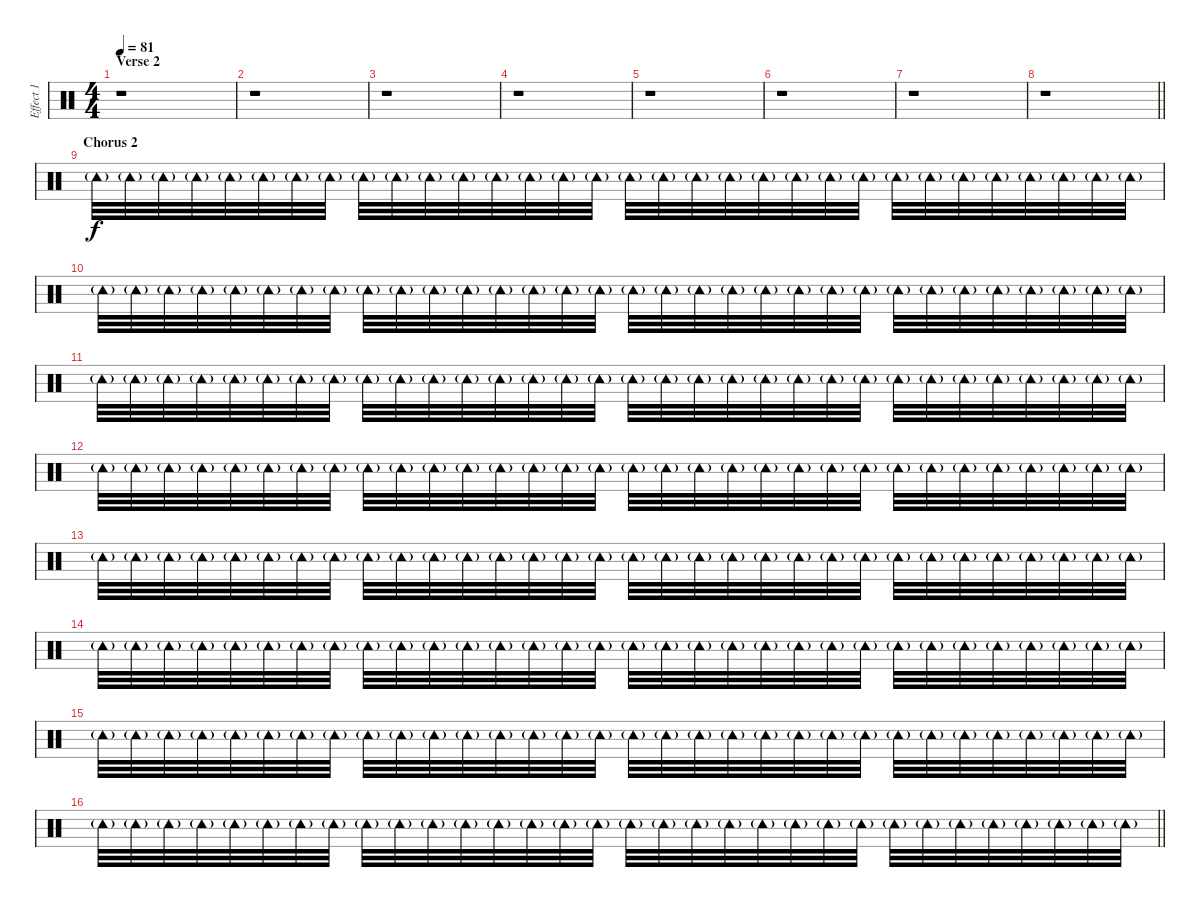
\track ("Effect 1" "Effect 1") {instrument percussion}
\staff {score}
\articulation defaults
\ts (4 4)
\section ("" "Verse 2")
\tempo 81
\clef neutral
\ks c
r.1{dy f} |
r.1 |
r.1 |
r.1 |
r.1 |
r.1 |
r.1 |
\barLineRight lightlight
r.1 |
\section ("" "Chorus 2")
"Tambourine (hit)"{g}.32 "Tambourine (hit)"{g}.32 "Tambourine (hit)"{g}.32 "Tambourine (hit)"{g}.32 "Tambourine (hit)"{g}.32 "Tambourine (hit)"{g}.32 "Tambourine (hit)"{g}.32 "Tambourine (hit)"{g}.32 "Tambourine (hit)"{g}.32 "Tambourine (hit)"{g}.32 "Tambourine (hit)"{g}.32 "Tambourine (hit)"{g}.32 "Tambourine (hit)"{g}.32 "Tambourine (hit)"{g}.32 "Tambourine (hit)"{g}.32 "Tambourine (hit)"{g}.32 "Tambourine (hit)"{g}.32 "Tambourine (hit)"{g}.32 "Tambourine (hit)"{g}.32 "Tambourine (hit)"{g}.32 "Tambourine (hit)"{g}.32 "Tambourine (hit)"{g}.32 "Tambourine (hit)"{g}.32 "Tambourine (hit)"{g}.32 "Tambourine (hit)"{g}.32 "Tambourine (hit)"{g}.32 "Tambourine (hit)"{g}.32 "Tambourine (hit)"{g}.32 "Tambourine (hit)"{g}.32 "Tambourine (hit)"{g}.32 "Tambourine (hit)"{g}.32 "Tambourine (hit)"{g}.32 |
"Tambourine (hit)"{g}.32 "Tambourine (hit)"{g}.32 "Tambourine (hit)"{g}.32 "Tambourine (hit)"{g}.32 "Tambourine (hit)"{g}.32 "Tambourine (hit)"{g}.32 "Tambourine (hit)"{g}.32 "Tambourine (hit)"{g}.32 "Tambourine (hit)"{g}.32 "Tambourine (hit)"{g}.32 "Tambourine (hit)"{g}.32 "Tambourine (hit)"{g}.32 "Tambourine (hit)"{g}.32 "Tambourine (hit)"{g}.32 "Tambourine (hit)"{g}.32 "Tambourine (hit)"{g}.32 "Tambourine (hit)"{g}.32 "Tambourine (hit)"{g}.32 "Tambourine (hit)"{g}.32 "Tambourine (hit)"{g}.32 "Tambourine (hit)"{g}.32 "Tambourine (hit)"{g}.32 "Tambourine (hit)"{g}.32 "Tambourine (hit)"{g}.32 "Tambourine (hit)"{g}.32 "Tambourine (hit)"{g}.32 "Tambourine (hit)"{g}.32 "Tambourine (hit)"{g}.32 "Tambourine (hit)"{g}.32 "Tambourine (hit)"{g}.32 "Tambourine (hit)"{g}.32 "Tambourine (hit)"{g}.32 |
"Tambourine (hit)"{g}.32 "Tambourine (hit)"{g}.32 "Tambourine (hit)"{g}.32 "Tambourine (hit)"{g}.32 "Tambourine (hit)"{g}.32 "Tambourine (hit)"{g}.32 "Tambourine (hit)"{g}.32 "Tambourine (hit)"{g}.32 "Tambourine (hit)"{g}.32 "Tambourine (hit)"{g}.32 "Tambourine (hit)"{g}.32 "Tambourine (hit)"{g}.32 "Tambourine (hit)"{g}.32 "Tambourine (hit)"{g}.32 "Tambourine (hit)"{g}.32 "Tambourine (hit)"{g}.32 "Tambourine (hit)"{g}.32 "Tambourine (hit)"{g}.32 "Tambourine (hit)"{g}.32 "Tambourine (hit)"{g}.32 "Tambourine (hit)"{g}.32 "Tambourine (hit)"{g}.32 "Tambourine (hit)"{g}.32 "Tambourine (hit)"{g}.32 "Tambourine (hit)"{g}.32 "Tambourine (hit)"{g}.32 "Tambourine (hit)"{g}.32 "Tambourine (hit)"{g}.32 "Tambourine (hit)"{g}.32 "Tambourine (hit)"{g}.32 "Tambourine (hit)"{g}.32 "Tambourine (hit)"{g}.32 |
"Tambourine (hit)"{g}.32 "Tambourine (hit)"{g}.32 "Tambourine (hit)"{g}.32 "Tambourine (hit)"{g}.32 "Tambourine (hit)"{g}.32 "Tambourine (hit)"{g}.32 "Tambourine (hit)"{g}.32 "Tambourine (hit)"{g}.32 "Tambourine (hit)"{g}.32 "Tambourine (hit)"{g}.32 "Tambourine (hit)"{g}.32 "Tambourine (hit)"{g}.32 "Tambourine (hit)"{g}.32 "Tambourine (hit)"{g}.32 "Tambourine (hit)"{g}.32 "Tambourine (hit)"{g}.32 "Tambourine (hit)"{g}.32 "Tambourine (hit)"{g}.32 "Tambourine (hit)"{g}.32 "Tambourine (hit)"{g}.32 "Tambourine (hit)"{g}.32 "Tambourine (hit)"{g}.32 "Tambourine (hit)"{g}.32 "Tambourine (hit)"{g}.32 "Tambourine (hit)"{g}.32 "Tambourine (hit)"{g}.32 "Tambourine (hit)"{g}.32 "Tambourine (hit)"{g}.32 "Tambourine (hit)"{g}.32 "Tambourine (hit)"{g}.32 "Tambourine (hit)"{g}.32 "Tambourine (hit)"{g}.32 |
"Tambourine (hit)"{g}.32 "Tambourine (hit)"{g}.32 "Tambourine (hit)"{g}.32 "Tambourine (hit)"{g}.32 "Tambourine (hit)"{g}.32 "Tambourine (hit)"{g}.32 "Tambourine (hit)"{g}.32 "Tambourine (hit)"{g}.32 "Tambourine (hit)"{g}.32 "Tambourine (hit)"{g}.32 "Tambourine (hit)"{g}.32 "Tambourine (hit)"{g}.32 "Tambourine (hit)"{g}.32 "Tambourine (hit)"{g}.32 "Tambourine (hit)"{g}.32 "Tambourine (hit)"{g}.32 "Tambourine (hit)"{g}.32 "Tambourine (hit)"{g}.32 "Tambourine (hit)"{g}.32 "Tambourine (hit)"{g}.32 "Tambourine (hit)"{g}.32 "Tambourine (hit)"{g}.32 "Tambourine (hit)"{g}.32 "Tambourine (hit)"{g}.32 "Tambourine (hit)"{g}.32 "Tambourine (hit)"{g}.32 "Tambourine (hit)"{g}.32 "Tambourine (hit)"{g}.32 "Tambourine (hit)"{g}.32 "Tambourine (hit)"{g}.32 "Tambourine (hit)"{g}.32 "Tambourine (hit)"{g}.32 |
"Tambourine (hit)"{g}.32 "Tambourine (hit)"{g}.32 "Tambourine (hit)"{g}.32 "Tambourine (hit)"{g}.32 "Tambourine (hit)"{g}.32 "Tambourine (hit)"{g}.32 "Tambourine (hit)"{g}.32 "Tambourine (hit)"{g}.32 "Tambourine (hit)"{g}.32 "Tambourine (hit)"{g}.32 "Tambourine (hit)"{g}.32 "Tambourine (hit)"{g}.32 "Tambourine (hit)"{g}.32 "Tambourine (hit)"{g}.32 "Tambourine (hit)"{g}.32 "Tambourine (hit)"{g}.32 "Tambourine (hit)"{g}.32 "Tambourine (hit)"{g}.32 "Tambourine (hit)"{g}.32 "Tambourine (hit)"{g}.32 "Tambourine (hit)"{g}.32 "Tambourine (hit)"{g}.32 "Tambourine (hit)"{g}.32 "Tambourine (hit)"{g}.32 "Tambourine (hit)"{g}.32 "Tambourine (hit)"{g}.32 "Tambourine (hit)"{g}.32 "Tambourine (hit)"{g}.32 "Tambourine (hit)"{g}.32 "Tambourine (hit)"{g}.32 "Tambourine (hit)"{g}.32 "Tambourine (hit)"{g}.32 |
"Tambourine (hit)"{g}.32 "Tambourine (hit)"{g}.32 "Tambourine (hit)"{g}.32 "Tambourine (hit)"{g}.32 "Tambourine (hit)"{g}.32 "Tambourine (hit)"{g}.32 "Tambourine (hit)"{g}.32 "Tambourine (hit)"{g}.32 "Tambourine (hit)"{g}.32 "Tambourine (hit)"{g}.32 "Tambourine (hit)"{g}.32 "Tambourine (hit)"{g}.32 "Tambourine (hit)"{g}.32 "Tambourine (hit)"{g}.32 "Tambourine (hit)"{g}.32 "Tambourine (hit)"{g}.32 "Tambourine (hit)"{g}.32 "Tambourine (hit)"{g}.32 "Tambourine (hit)"{g}.32 "Tambourine (hit)"{g}.32 "Tambourine (hit)"{g}.32 "Tambourine (hit)"{g}.32 "Tambourine (hit)"{g}.32 "Tambourine (hit)"{g}.32 "Tambourine (hit)"{g}.32 "Tambourine (hit)"{g}.32 "Tambourine (hit)"{g}.32 "Tambourine (hit)"{g}.32 "Tambourine (hit)"{g}.32 "Tambourine (hit)"{g}.32 "Tambourine (hit)"{g}.32 "Tambourine (hit)"{g}.32 |
\barLineRight lightlight "Tambourine (hit)"{g}.32 "Tambourine (hit)"{g}.32 "Tambourine (hit)"{g}.32 "Tambourine (hit)"{g}.32 "Tambourine (hit)"{g}.32 "Tambourine (hit)"{g}.32 "Tambourine (hit)"{g}.32 "Tambourine (hit)"{g}.32 "Tambourine (hit)"{g}.32 "Tambourine (hit)"{g}.32 "Tambourine (hit)"{g}.32 "Tambourine (hit)"{g}.32 "Tambourine (hit)"{g}.32 "Tambourine (hit)"{g}.32 "Tambourine (hit)"{g}.32 "Tambourine (hit)"{g}.32 "Tambourine (hit)"{g}.32 "Tambourine (hit)"{g}.32 "Tambourine (hit)"{g}.32 "Tambourine (hit)"{g}.32 "Tambourine (hit)"{g}.32 "Tambourine (hit)"{g}.32 "Tambourine (hit)"{g}.32 "Tambourine (hit)"{g}.32 "Tambourine (hit)"{g}.32 "Tambourine (hit)"{g}.32 "Tambourine (hit)"{g}.32 "Tambourine (hit)"{g}.32 "Tambourine (hit)"{g}.32 "Tambourine (hit)"{g}.32 "Tambourine (hit)"{g}.32 "Tambourine (hit)"{g}.32
